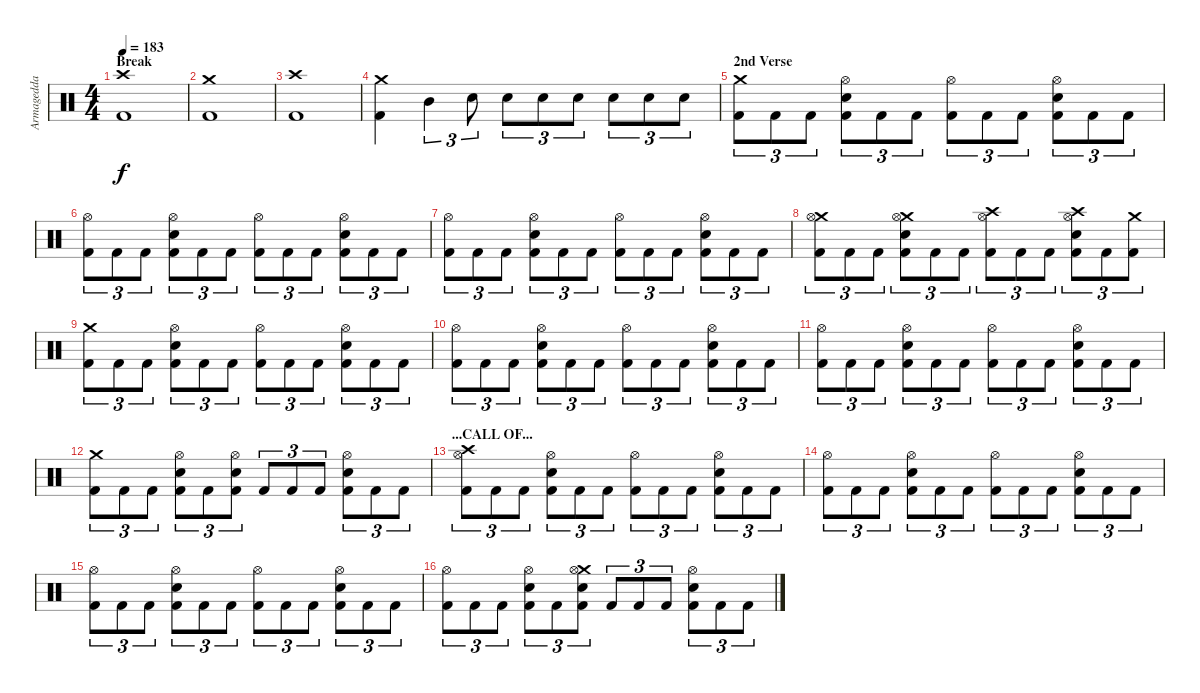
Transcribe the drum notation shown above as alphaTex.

\track ("Armagedda" "Armagedda") {instrument percussion}
\staff {score}
\articulation defaults
\ts (4 4)
\section ("" "Break")
\tempo 183
\clef neutral
\ks c
("Crash high (hit)" "Kick (hit) 2").1{dy f} |
("Crash medium (hit)" "Kick (hit) 2").1 |
("Crash high (hit)" "Kick (hit) 2").1 |
("Crash medium (hit)" "Kick (hit) 2").4 "Mid Tom (hit)".4{tu (3 2)} "Electric Snare (hit)".8{tu (3 2)} "Electric Snare (hit)".8{tu (3 2)} "Electric Snare (hit)".8{tu (3 2)} "Electric Snare (hit)".8{tu (3 2)} "Electric Snare (hit)".8{tu (3 2)} "Electric Snare (hit)".8{tu (3 2)} "Electric Snare (hit)".8{tu (3 2)} |
\section ("" "2nd Verse")
("Crash medium (hit)" "Kick (hit) 2").8{tu (3 2)} "Kick (hit) 2".8{tu (3 2)} "Kick (hit) 2".8{tu (3 2)} ("Hi-Hat (open)" "Electric Snare (hit)" "Kick (hit) 2").8{tu (3 2)} "Kick (hit) 2".8{tu (3 2)} "Kick (hit) 2".8{tu (3 2)} ("Hi-Hat (open)" "Kick (hit) 2").8{tu (3 2)} "Kick (hit) 2".8{tu (3 2)} "Kick (hit) 2".8{tu (3 2)} ("Hi-Hat (open)" "Electric Snare (hit)" "Kick (hit) 2").8{tu (3 2)} "Kick (hit) 2".8{tu (3 2)} "Kick (hit) 2".8{tu (3 2)} |
("Hi-Hat (open)" "Kick (hit) 2").8{tu (3 2)} "Kick (hit) 2".8{tu (3 2)} "Kick (hit) 2".8{tu (3 2)} ("Hi-Hat (open)" "Electric Snare (hit)" "Kick (hit) 2").8{tu (3 2)} "Kick (hit) 2".8{tu (3 2)} "Kick (hit) 2".8{tu (3 2)} ("Hi-Hat (open)" "Kick (hit) 2").8{tu (3 2)} "Kick (hit) 2".8{tu (3 2)} "Kick (hit) 2".8{tu (3 2)} ("Hi-Hat (open)" "Electric Snare (hit)" "Kick (hit) 2").8{tu (3 2)} "Kick (hit) 2".8{tu (3 2)} "Kick (hit) 2".8{tu (3 2)} |
("Hi-Hat (open)" "Kick (hit) 2").8{tu (3 2)} "Kick (hit) 2".8{tu (3 2)} "Kick (hit) 2".8{tu (3 2)} ("Hi-Hat (open)" "Electric Snare (hit)" "Kick (hit) 2").8{tu (3 2)} "Kick (hit) 2".8{tu (3 2)} "Kick (hit) 2".8{tu (3 2)} ("Hi-Hat (open)" "Kick (hit) 2").8{tu (3 2)} "Kick (hit) 2".8{tu (3 2)} "Kick (hit) 2".8{tu (3 2)} ("Hi-Hat (open)" "Electric Snare (hit)" "Kick (hit) 2").8{tu (3 2)} "Kick (hit) 2".8{tu (3 2)} "Kick (hit) 2".8{tu (3 2)} |
("Crash medium (hit)" "Hi-Hat (open)" "Kick (hit) 2").8{tu (3 2)} "Kick (hit) 2".8{tu (3 2)} "Kick (hit) 2".8{tu (3 2)} ("Crash medium (hit)" "Hi-Hat (open)" "Electric Snare (hit)" "Kick (hit) 2").8{tu (3 2)} "Kick (hit) 2".8{tu (3 2)} "Kick (hit) 2".8{tu (3 2)} ("Crash high (hit)" "Hi-Hat (open)" "Kick (hit) 2").8{tu (3 2)} "Kick (hit) 2".8{tu (3 2)} "Kick (hit) 2".8{tu (3 2)} ("Crash high (hit)" "Hi-Hat (open)" "Electric Snare (hit)" "Kick (hit) 2").8{tu (3 2)} "Kick (hit) 2".8{tu (3 2)} ("Crash medium (hit)" "Kick (hit) 2").8{tu (3 2)} |
("Crash medium (hit)" "Kick (hit) 2").8{tu (3 2)} "Kick (hit) 2".8{tu (3 2)} "Kick (hit) 2".8{tu (3 2)} ("Hi-Hat (open)" "Electric Snare (hit)" "Kick (hit) 2").8{tu (3 2)} "Kick (hit) 2".8{tu (3 2)} "Kick (hit) 2".8{tu (3 2)} ("Hi-Hat (open)" "Kick (hit) 2").8{tu (3 2)} "Kick (hit) 2".8{tu (3 2)} "Kick (hit) 2".8{tu (3 2)} ("Hi-Hat (open)" "Electric Snare (hit)" "Kick (hit) 2").8{tu (3 2)} "Kick (hit) 2".8{tu (3 2)} "Kick (hit) 2".8{tu (3 2)} |
("Hi-Hat (open)" "Kick (hit) 2").8{tu (3 2)} "Kick (hit) 2".8{tu (3 2)} "Kick (hit) 2".8{tu (3 2)} ("Hi-Hat (open)" "Electric Snare (hit)" "Kick (hit) 2").8{tu (3 2)} "Kick (hit) 2".8{tu (3 2)} "Kick (hit) 2".8{tu (3 2)} ("Hi-Hat (open)" "Kick (hit) 2").8{tu (3 2)} "Kick (hit) 2".8{tu (3 2)} "Kick (hit) 2".8{tu (3 2)} ("Hi-Hat (open)" "Electric Snare (hit)" "Kick (hit) 2").8{tu (3 2)} "Kick (hit) 2".8{tu (3 2)} "Kick (hit) 2".8{tu (3 2)} |
("Hi-Hat (open)" "Kick (hit) 2").8{tu (3 2)} "Kick (hit) 2".8{tu (3 2)} "Kick (hit) 2".8{tu (3 2)} ("Hi-Hat (open)" "Electric Snare (hit)" "Kick (hit) 2").8{tu (3 2)} "Kick (hit) 2".8{tu (3 2)} "Kick (hit) 2".8{tu (3 2)} ("Hi-Hat (open)" "Kick (hit) 2").8{tu (3 2)} "Kick (hit) 2".8{tu (3 2)} "Kick (hit) 2".8{tu (3 2)} ("Hi-Hat (open)" "Electric Snare (hit)" "Kick (hit) 2").8{tu (3 2)} "Kick (hit) 2".8{tu (3 2)} "Kick (hit) 2".8{tu (3 2)} |
("Crash medium (hit)" "Kick (hit) 2").8{tu (3 2)} "Kick (hit) 2".8{tu (3 2)} "Kick (hit) 2".8{tu (3 2)} ("Hi-Hat (open)" "Electric Snare (hit)" "Kick (hit) 2").8{tu (3 2)} "Kick (hit) 2".8{tu (3 2)} ("Hi-Hat (open)" "Electric Snare (hit)" "Kick (hit) 2").8{tu (3 2)} "Kick (hit) 2".8{tu (3 2)} "Kick (hit) 2".8{tu (3 2)} "Kick (hit) 2".8{tu (3 2)} ("Hi-Hat (open)" "Electric Snare (hit)" "Kick (hit) 2").8{tu (3 2)} "Kick (hit) 2".8{tu (3 2)} "Kick (hit) 2".8{tu (3 2)} |
\section ("" "...CALL OF...")
("Crash high (hit)" "Hi-Hat (open)" "Kick (hit) 2").8{tu (3 2)} "Kick (hit) 2".8{tu (3 2)} "Kick (hit) 2".8{tu (3 2)} ("Hi-Hat (open)" "Electric Snare (hit)" "Kick (hit) 2").8{tu (3 2)} "Kick (hit) 2".8{tu (3 2)} "Kick (hit) 2".8{tu (3 2)} ("Hi-Hat (open)" "Kick (hit) 2").8{tu (3 2)} "Kick (hit) 2".8{tu (3 2)} "Kick (hit) 2".8{tu (3 2)} ("Hi-Hat (open)" "Electric Snare (hit)" "Kick (hit) 2").8{tu (3 2)} "Kick (hit) 2".8{tu (3 2)} "Kick (hit) 2".8{tu (3 2)} |
("Hi-Hat (open)" "Kick (hit) 2").8{tu (3 2)} "Kick (hit) 2".8{tu (3 2)} "Kick (hit) 2".8{tu (3 2)} ("Hi-Hat (open)" "Electric Snare (hit)" "Kick (hit) 2").8{tu (3 2)} "Kick (hit) 2".8{tu (3 2)} "Kick (hit) 2".8{tu (3 2)} ("Hi-Hat (open)" "Kick (hit) 2").8{tu (3 2)} "Kick (hit) 2".8{tu (3 2)} "Kick (hit) 2".8{tu (3 2)} ("Hi-Hat (open)" "Electric Snare (hit)" "Kick (hit) 2").8{tu (3 2)} "Kick (hit) 2".8{tu (3 2)} "Kick (hit) 2".8{tu (3 2)} |
("Hi-Hat (open)" "Kick (hit) 2").8{tu (3 2)} "Kick (hit) 2".8{tu (3 2)} "Kick (hit) 2".8{tu (3 2)} ("Hi-Hat (open)" "Electric Snare (hit)" "Kick (hit) 2").8{tu (3 2)} "Kick (hit) 2".8{tu (3 2)} "Kick (hit) 2".8{tu (3 2)} ("Hi-Hat (open)" "Kick (hit) 2").8{tu (3 2)} "Kick (hit) 2".8{tu (3 2)} "Kick (hit) 2".8{tu (3 2)} ("Hi-Hat (open)" "Electric Snare (hit)" "Kick (hit) 2").8{tu (3 2)} "Kick (hit) 2".8{tu (3 2)} "Kick (hit) 2".8{tu (3 2)} |
("Hi-Hat (open)" "Kick (hit) 2").8{tu (3 2)} "Kick (hit) 2".8{tu (3 2)} "Kick (hit) 2".8{tu (3 2)} ("Hi-Hat (open)" "Electric Snare (hit)" "Kick (hit) 2").8{tu (3 2)} "Kick (hit) 2".8{tu (3 2)} ("Crash medium (hit)" "Hi-Hat (open)" "Electric Snare (hit)" "Kick (hit) 2").8{tu (3 2)} "Kick (hit) 2".8{tu (3 2)} "Kick (hit) 2".8{tu (3 2)} "Kick (hit) 2".8{tu (3 2)} ("Hi-Hat (open)" "Electric Snare (hit)" "Kick (hit) 2").8{tu (3 2)} "Kick (hit) 2".8{tu (3 2)} "Kick (hit) 2".8{tu (3 2)}
